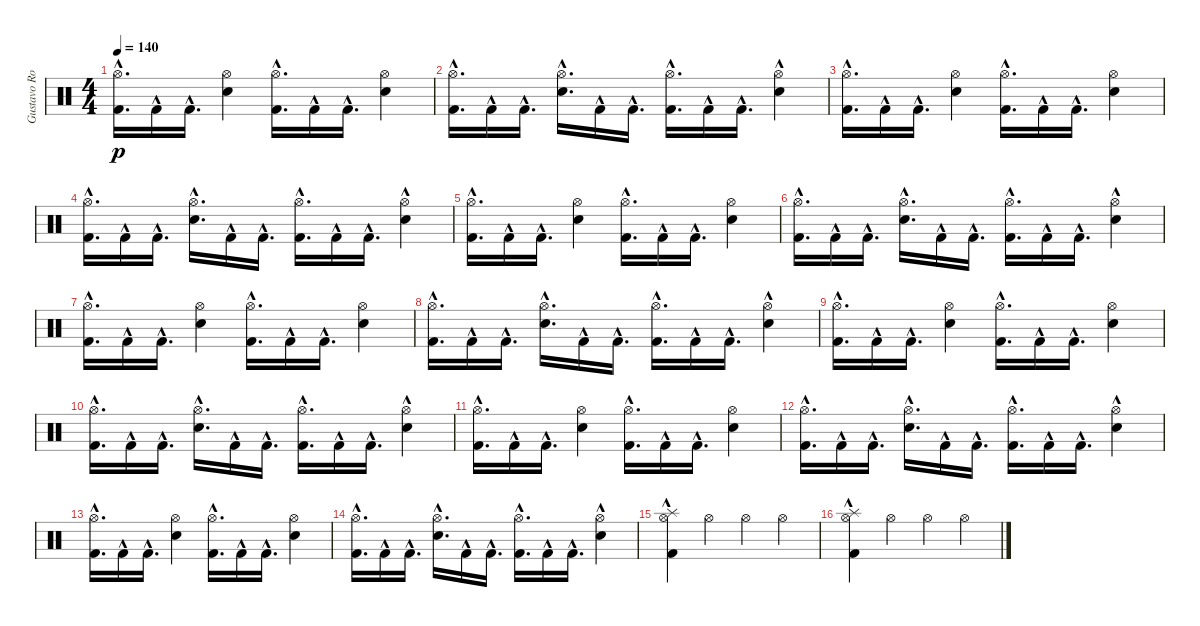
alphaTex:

\track ("Gustavo Rowek" "Gustavo Ro") {instrument percussion}
\staff {score}
\articulation defaults
\ts (4 4)
\tempo 140
\clef neutral
\ks c
("Hi-Hat (open)" "Kick (hit) 2"{hac}).16{d dy p} "Kick (hit) 2"{hac}.16 "Kick (hit) 2"{hac}.16{d} ("Hi-Hat (open)" "Snare (hit) 2").4 ("Hi-Hat (open)" "Kick (hit) 2"{hac}).16{d} "Kick (hit) 2"{hac}.16 "Kick (hit) 2"{hac}.16{d} ("Hi-Hat (open)" "Snare (hit) 2").4 |
("Hi-Hat (open)" "Kick (hit) 2"{hac}).16{d} "Kick (hit) 2"{hac}.16 "Kick (hit) 2"{hac}.16{d} ("Hi-Hat (open)" "Snare (hit) 2"{hac}).16{d} "Kick (hit) 2"{hac}.16 "Kick (hit) 2"{hac}.16{d} ("Hi-Hat (open)" "Kick (hit) 2"{hac}).16{d} "Kick (hit) 2"{hac}.16 "Kick (hit) 2"{hac}.16{d} ("Hi-Hat (open)" "Electric Snare (hit)"{hac}).4 |
("Hi-Hat (open)" "Kick (hit) 2"{hac}).16{d} "Kick (hit) 2"{hac}.16 "Kick (hit) 2"{hac}.16{d} ("Hi-Hat (open)" "Snare (hit) 2").4 ("Hi-Hat (open)" "Kick (hit) 2"{hac}).16{d} "Kick (hit) 2"{hac}.16 "Kick (hit) 2"{hac}.16{d} ("Hi-Hat (open)" "Snare (hit) 2").4 |
("Hi-Hat (open)" "Kick (hit) 2"{hac}).16{d} "Kick (hit) 2"{hac}.16 "Kick (hit) 2"{hac}.16{d} ("Hi-Hat (open)" "Snare (hit) 2"{hac}).16{d} "Kick (hit) 2"{hac}.16 "Kick (hit) 2"{hac}.16{d} ("Hi-Hat (open)" "Kick (hit) 2"{hac}).16{d} "Kick (hit) 2"{hac}.16 "Kick (hit) 2"{hac}.16{d} ("Hi-Hat (open)" "Electric Snare (hit)"{hac}).4 |
("Kick (hit) 2"{hac} "Hi-Hat (open)").16{d} "Kick (hit) 2"{hac}.16 "Kick (hit) 2"{hac}.16{d} ("Snare (hit) 2" "Hi-Hat (open)").4 ("Kick (hit) 2"{hac} "Hi-Hat (open)").16{d} "Kick (hit) 2"{hac}.16 "Kick (hit) 2"{hac}.16{d} ("Snare (hit) 2" "Hi-Hat (open)").4 |
("Kick (hit) 2"{hac} "Hi-Hat (open)").16{d} "Kick (hit) 2"{hac}.16 "Kick (hit) 2"{hac}.16{d} ("Snare (hit) 2"{hac} "Hi-Hat (open)").16{d} "Kick (hit) 2"{hac}.16 "Kick (hit) 2"{hac}.16{d} ("Kick (hit) 2"{hac} "Hi-Hat (open)").16{d} "Kick (hit) 2"{hac}.16 "Kick (hit) 2"{hac}.16{d} ("Electric Snare (hit)"{hac} "Hi-Hat (open)").4 |
("Hi-Hat (open)" "Kick (hit) 2"{hac}).16{d} "Kick (hit) 2"{hac}.16 "Kick (hit) 2"{hac}.16{d} ("Hi-Hat (open)" "Snare (hit) 2").4 ("Hi-Hat (open)" "Kick (hit) 2"{hac}).16{d} "Kick (hit) 2"{hac}.16 "Kick (hit) 2"{hac}.16{d} ("Hi-Hat (open)" "Snare (hit) 2").4 |
("Hi-Hat (open)" "Kick (hit) 2"{hac}).16{d} "Kick (hit) 2"{hac}.16 "Kick (hit) 2"{hac}.16{d} ("Hi-Hat (open)" "Snare (hit) 2"{hac}).16{d} "Kick (hit) 2"{hac}.16 "Kick (hit) 2"{hac}.16{d} ("Hi-Hat (open)" "Kick (hit) 2"{hac}).16{d} "Kick (hit) 2"{hac}.16 "Kick (hit) 2"{hac}.16{d} ("Hi-Hat (open)" "Electric Snare (hit)"{hac}).4 |
("Hi-Hat (open)" "Kick (hit) 2"{hac}).16{d} "Kick (hit) 2"{hac}.16 "Kick (hit) 2"{hac}.16{d} ("Hi-Hat (open)" "Snare (hit) 2").4 ("Hi-Hat (open)" "Kick (hit) 2"{hac}).16{d} "Kick (hit) 2"{hac}.16 "Kick (hit) 2"{hac}.16{d} ("Hi-Hat (open)" "Snare (hit) 2").4 |
("Hi-Hat (open)" "Kick (hit) 2"{hac}).16{d} "Kick (hit) 2"{hac}.16 "Kick (hit) 2"{hac}.16{d} ("Hi-Hat (open)" "Snare (hit) 2"{hac}).16{d} "Kick (hit) 2"{hac}.16 "Kick (hit) 2"{hac}.16{d} ("Hi-Hat (open)" "Kick (hit) 2"{hac}).16{d} "Kick (hit) 2"{hac}.16 "Kick (hit) 2"{hac}.16{d} ("Hi-Hat (open)" "Electric Snare (hit)"{hac}).4 |
("Kick (hit) 2"{hac} "Hi-Hat (open)").16{d} "Kick (hit) 2"{hac}.16 "Kick (hit) 2"{hac}.16{d} ("Snare (hit) 2" "Hi-Hat (open)").4 ("Kick (hit) 2"{hac} "Hi-Hat (open)").16{d} "Kick (hit) 2"{hac}.16 "Kick (hit) 2"{hac}.16{d} ("Snare (hit) 2" "Hi-Hat (open)").4 |
("Kick (hit) 2"{hac} "Hi-Hat (open)").16{d} "Kick (hit) 2"{hac}.16 "Kick (hit) 2"{hac}.16{d} ("Snare (hit) 2"{hac} "Hi-Hat (open)").16{d} "Kick (hit) 2"{hac}.16 "Kick (hit) 2"{hac}.16{d} ("Kick (hit) 2"{hac} "Hi-Hat (open)").16{d} "Kick (hit) 2"{hac}.16 "Kick (hit) 2"{hac}.16{d} ("Electric Snare (hit)"{hac} "Hi-Hat (open)").4 |
("Hi-Hat (open)" "Kick (hit) 2"{hac}).16{d} "Kick (hit) 2"{hac}.16 "Kick (hit) 2"{hac}.16{d} ("Hi-Hat (open)" "Snare (hit) 2").4 ("Hi-Hat (open)" "Kick (hit) 2"{hac}).16{d} "Kick (hit) 2"{hac}.16 "Kick (hit) 2"{hac}.16{d} ("Hi-Hat (open)" "Snare (hit) 2").4 |
("Hi-Hat (open)" "Kick (hit) 2"{hac}).16{d} "Kick (hit) 2"{hac}.16 "Kick (hit) 2"{hac}.16{d} ("Hi-Hat (open)" "Snare (hit) 2"{hac}).16{d} "Kick (hit) 2"{hac}.16 "Kick (hit) 2"{hac}.16{d} ("Hi-Hat (open)" "Kick (hit) 2"{hac}).16{d} "Kick (hit) 2"{hac}.16 "Kick (hit) 2"{hac}.16{d} ("Hi-Hat (open)" "Electric Snare (hit)"{hac}).4 |
("Splash (hit)"{hac} "Kick (hit) 2"{hac} "Hi-Hat (open)").4 "Hi-Hat (open)".4 "Hi-Hat (open)".4 "Hi-Hat (open)".4 |
("Splash (hit)"{hac} "Kick (hit) 2"{hac} "Hi-Hat (open)").4 "Hi-Hat (open)".4 "Hi-Hat (open)".4 "Hi-Hat (open)".4
